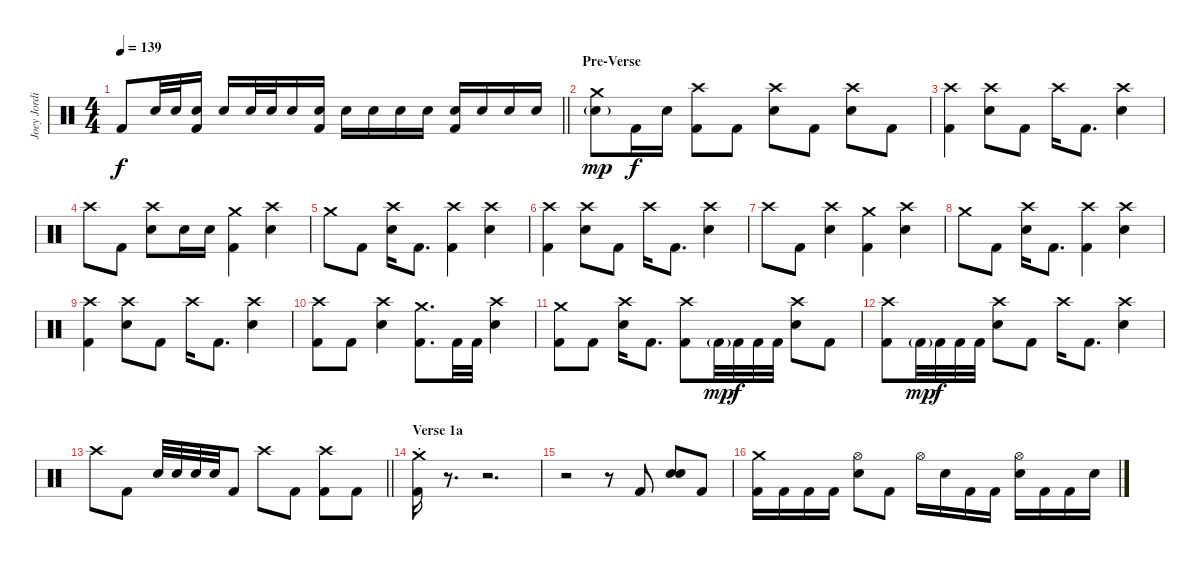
\track ("Joey Jordison" "Joey Jordi") {instrument percussion}
\staff {score}
\articulation defaults
\ts (4 4)
\tempo 139
\clef neutral
\barLineRight lightlight
\ks c "Kick (hit) 2".8{dy f} "Electric Snare (hit)".32 "Electric Snare (hit)".32
("Electric Snare (hit)" "Kick (hit) 2").16 "Electric Snare (hit)".16 "Electric Snare (hit)".32 "Electric Snare (hit)".32 "Electric Snare (hit)".16 ("Electric Snare (hit)" "Kick (hit) 2").16 "Electric Snare (hit)".16 "Electric Snare (hit)".16 "Electric Snare (hit)".16 "Electric Snare (hit)".16 ("Electric Snare (hit)" "Kick (hit) 2").16 "Electric Snare (hit)".16 "Electric Snare (hit)".16 "Electric Snare (hit)".16 |
\section ("" "Pre-Verse ")
("Crash medium (hit)" "Electric Snare (hit)"{g}).8{dy mp} "Kick (hit) 2".16{dy f} "Electric Snare (hit)".16 ("Crash high (hit)" "Kick (hit) 2").8 "Kick (hit) 2".8 ("Crash high (hit)" "Electric Snare (hit)").8 "Kick (hit) 2".8 ("Crash high (hit)" "Electric Snare (hit)").8 "Kick (hit) 2".8 |
("Crash high (hit)" "Kick (hit) 2").4 ("Crash high (hit)" "Electric Snare (hit)").8 "Kick (hit) 2".8 "Crash high (hit)".16 "Kick (hit) 2".8{d} ("Crash high (hit)" "Electric Snare (hit)").4 |
"Crash high (hit)".8 "Kick (hit) 2".8 ("Crash high (hit)" "Electric Snare (hit)").8 "Electric Snare (hit)".16 "Electric Snare (hit)".16 ("Crash medium (hit)" "Kick (hit) 2").4 ("Crash high (hit)" "Electric Snare (hit)").4 |
"Crash medium (hit)".8 "Kick (hit) 2".8 ("Crash high (hit)" "Electric Snare (hit)").16 "Kick (hit) 2".8{d} ("Crash high (hit)" "Kick (hit) 2").4 ("Crash high (hit)" "Electric Snare (hit)").4 |
("Crash high (hit)" "Kick (hit) 2").4 ("Crash high (hit)" "Electric Snare (hit)").8 "Kick (hit) 2".8 "Crash high (hit)".16 "Kick (hit) 2".8{d} ("Crash high (hit)" "Electric Snare (hit)").4 |
"Crash high (hit)".8 "Kick (hit) 2".8 ("Crash high (hit)" "Electric Snare (hit)").4 ("Crash medium (hit)" "Kick (hit) 2").4 ("Crash high (hit)" "Electric Snare (hit)").4 |
"Crash medium (hit)".8 "Kick (hit) 2".8 ("Crash high (hit)" "Electric Snare (hit)").16 "Kick (hit) 2".8{d} ("Crash high (hit)" "Kick (hit) 2").4 ("Crash high (hit)" "Electric Snare (hit)").4 |
("Crash high (hit)" "Kick (hit) 2").4 ("Crash high (hit)" "Electric Snare (hit)").8 "Kick (hit) 2".8 "Crash high (hit)".16 "Kick (hit) 2".8{d} ("Crash high (hit)" "Electric Snare (hit)").4 |
("Crash high (hit)" "Kick (hit) 2").8 "Kick (hit) 2".8 ("Crash high (hit)" "Electric Snare (hit)").4 ("Crash medium (hit)" "Kick (hit) 2").8{d} "Kick (hit) 2".32 "Kick (hit) 2".32 ("Crash high (hit)" "Electric Snare (hit)").4 |
("Crash medium (hit)" "Kick (hit) 2").8 "Kick (hit) 2".8 ("Crash high (hit)" "Electric Snare (hit)").16 "Kick (hit) 2".8{d} ("Crash high (hit)" "Kick (hit) 2").8 "Kick (hit) 2"{g}.32{dy mp} "Kick (hit) 2".32{dy f} "Kick (hit) 2".32 "Kick (hit) 2".32 ("Crash high (hit)" "Electric Snare (hit)").8 "Kick (hit) 2".8 |
("Crash high (hit)" "Kick (hit) 2").8 "Kick (hit) 2"{g}.32{dy mp} "Kick (hit) 2".32{dy f} "Kick (hit) 2".32 "Kick (hit) 2".32 ("Crash high (hit)" "Electric Snare (hit)").8 "Kick (hit) 2".8 "Crash high (hit)".16 "Kick (hit) 2".8{d} ("Crash high (hit)" "Electric Snare (hit)").4 |
\barLineRight lightlight "Crash high (hit)".8 "Kick (hit) 2".8 "Electric Snare (hit)".32 "Electric Snare (hit)".32 "Electric Snare (hit)".32 "Electric Snare (hit)".32 "Kick (hit) 2".8 "Crash high (hit)".8 "Kick (hit) 2".8
("Crash high (hit)" "Kick (hit) 2").8 "Kick (hit) 2".8 |
\section ("" "Verse 1a")
("Crash medium (hit)" "Kick (hit) 2"{st}).16 r.8{d} r.2{d} |
r.2 r.8 "Kick (hit) 2".8 ("Electric Snare (hit)" "Electric Snare (hit)").8 "Kick (hit) 2".8 |
("Crash medium (hit)" "Kick (hit) 2").16 "Kick (hit) 2".16 "Kick (hit) 2".16 "Kick (hit) 2".16 ("Hi-Hat (open)" "Electric Snare (hit)").8 "Kick (hit) 2".8 "Hi-Hat (open)".16 "Electric Snare (hit)".16 "Kick (hit) 2".16 "Kick (hit) 2".16 ("Hi-Hat (open)" "Electric Snare (hit)").16 "Kick (hit) 2".16 "Kick (hit) 2".16 "Electric Snare (hit)".16
